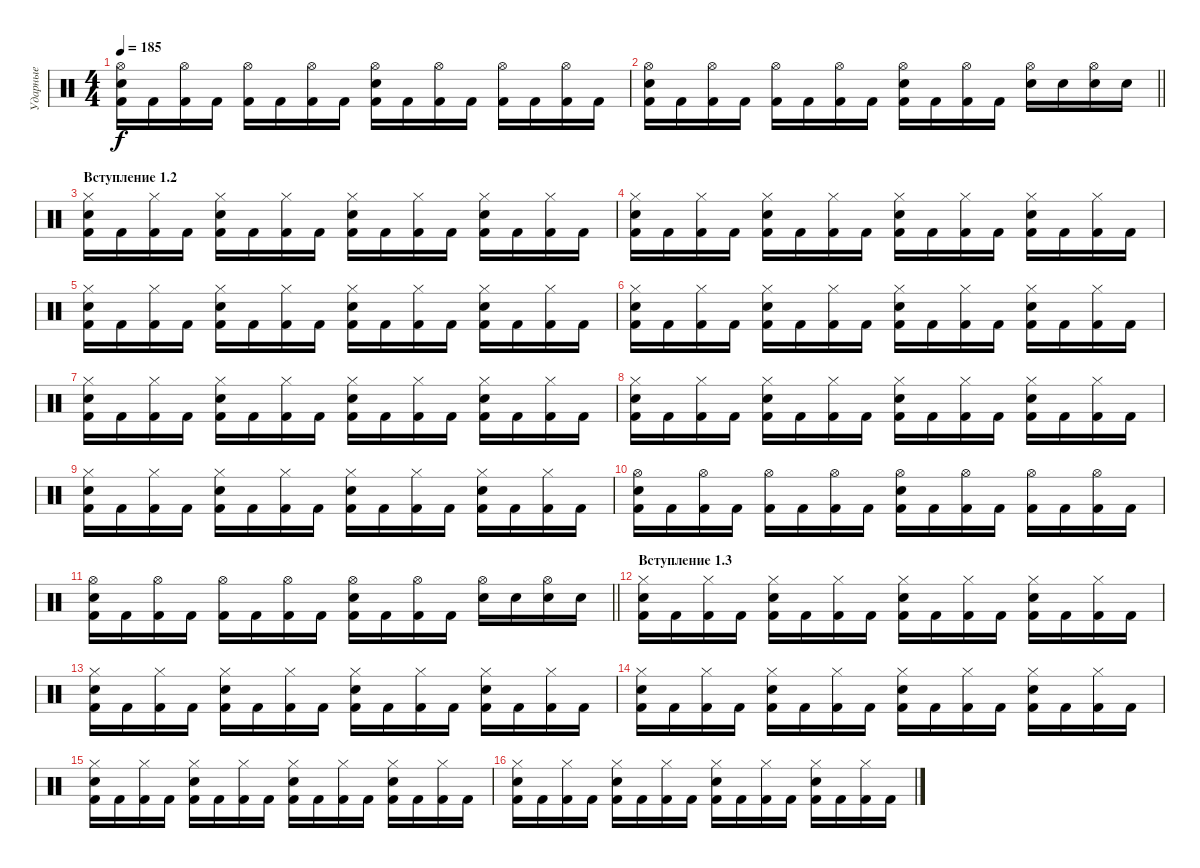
\track ("Ударные" "Ударные") {instrument percussion}
\staff {score}
\articulation defaults
\ts (4 4)
\tempo 185
\clef neutral
\ks c
("Snare (hit) 2" "Hi-Hat (open)" "Kick (hit) 2").16{dy f} "Kick (hit) 2".16 ("Hi-Hat (open)" "Kick (hit) 2").16 "Kick (hit) 2".16 ("Hi-Hat (open)" "Kick (hit) 2").16 "Kick (hit) 2".16 ("Hi-Hat (open)" "Kick (hit) 2").16 "Kick (hit) 2".16 ("Snare (hit) 2" "Hi-Hat (open)" "Kick (hit) 2").16 "Kick (hit) 2".16 ("Hi-Hat (open)" "Kick (hit) 2").16 "Kick (hit) 2".16 ("Hi-Hat (open)" "Kick (hit) 2").16 "Kick (hit) 2".16 ("Hi-Hat (open)" "Kick (hit) 2").16 "Kick (hit) 2".16 |
\barLineRight lightlight
("Snare (hit) 2" "Hi-Hat (open)" "Kick (hit) 2").16 "Kick (hit) 2".16 ("Hi-Hat (open)" "Kick (hit) 2").16 "Kick (hit) 2".16 ("Hi-Hat (open)" "Kick (hit) 2").16 "Kick (hit) 2".16 ("Hi-Hat (open)" "Kick (hit) 2").16 "Kick (hit) 2".16 ("Snare (hit) 2" "Hi-Hat (open)" "Kick (hit) 2").16 "Kick (hit) 2".16 ("Hi-Hat (open)" "Kick (hit) 2").16 "Kick (hit) 2".16 ("Hi-Hat (open)" "Electric Snare (hit)").16 "Electric Snare (hit)".16 ("Hi-Hat (open)" "Electric Snare (hit)").16 "Electric Snare (hit)".16 |
\section ("" "Вступление 1.2")
("Hi-Hat (closed)" "Snare (hit) 2" "Kick (hit) 2").16 "Kick (hit) 2".16 ("Hi-Hat (closed)" "Kick (hit) 2").16 "Kick (hit) 2".16 ("Hi-Hat (closed)" "Snare (hit) 2" "Kick (hit) 2").16 "Kick (hit) 2".16 ("Hi-Hat (closed)" "Kick (hit) 2").16 "Kick (hit) 2".16 ("Hi-Hat (closed)" "Snare (hit) 2" "Kick (hit) 2").16 "Kick (hit) 2".16 ("Hi-Hat (closed)" "Kick (hit) 2").16 "Kick (hit) 2".16 ("Hi-Hat (closed)" "Snare (hit) 2" "Kick (hit) 2").16 "Kick (hit) 2".16 ("Hi-Hat (closed)" "Kick (hit) 2").16 "Kick (hit) 2".16 |
("Hi-Hat (closed)" "Snare (hit) 2" "Kick (hit) 2").16 "Kick (hit) 2".16 ("Hi-Hat (closed)" "Kick (hit) 2").16 "Kick (hit) 2".16 ("Hi-Hat (closed)" "Snare (hit) 2" "Kick (hit) 2").16 "Kick (hit) 2".16 ("Hi-Hat (closed)" "Kick (hit) 2").16 "Kick (hit) 2".16 ("Hi-Hat (closed)" "Snare (hit) 2" "Kick (hit) 2").16 "Kick (hit) 2".16 ("Hi-Hat (closed)" "Kick (hit) 2").16 "Kick (hit) 2".16 ("Hi-Hat (closed)" "Snare (hit) 2" "Kick (hit) 2").16 "Kick (hit) 2".16 ("Hi-Hat (closed)" "Kick (hit) 2").16 "Kick (hit) 2".16 |
("Hi-Hat (closed)" "Snare (hit) 2" "Kick (hit) 2").16 "Kick (hit) 2".16 ("Hi-Hat (closed)" "Kick (hit) 2").16 "Kick (hit) 2".16 ("Hi-Hat (closed)" "Snare (hit) 2" "Kick (hit) 2").16 "Kick (hit) 2".16 ("Hi-Hat (closed)" "Kick (hit) 2").16 "Kick (hit) 2".16 ("Hi-Hat (closed)" "Snare (hit) 2" "Kick (hit) 2").16 "Kick (hit) 2".16 ("Hi-Hat (closed)" "Kick (hit) 2").16 "Kick (hit) 2".16 ("Hi-Hat (closed)" "Snare (hit) 2" "Kick (hit) 2").16 "Kick (hit) 2".16 ("Hi-Hat (closed)" "Kick (hit) 2").16 "Kick (hit) 2".16 |
("Hi-Hat (closed)" "Snare (hit) 2" "Kick (hit) 2").16 "Kick (hit) 2".16 ("Hi-Hat (closed)" "Kick (hit) 2").16 "Kick (hit) 2".16 ("Hi-Hat (closed)" "Snare (hit) 2" "Kick (hit) 2").16 "Kick (hit) 2".16 ("Hi-Hat (closed)" "Kick (hit) 2").16 "Kick (hit) 2".16 ("Hi-Hat (closed)" "Snare (hit) 2" "Kick (hit) 2").16 "Kick (hit) 2".16 ("Hi-Hat (closed)" "Kick (hit) 2").16 "Kick (hit) 2".16 ("Hi-Hat (closed)" "Snare (hit) 2" "Kick (hit) 2").16 "Kick (hit) 2".16 ("Hi-Hat (closed)" "Kick (hit) 2").16 "Kick (hit) 2".16 |
("Hi-Hat (closed)" "Snare (hit) 2" "Kick (hit) 2").16 "Kick (hit) 2".16 ("Hi-Hat (closed)" "Kick (hit) 2").16 "Kick (hit) 2".16 ("Hi-Hat (closed)" "Snare (hit) 2" "Kick (hit) 2").16 "Kick (hit) 2".16 ("Hi-Hat (closed)" "Kick (hit) 2").16 "Kick (hit) 2".16 ("Hi-Hat (closed)" "Snare (hit) 2" "Kick (hit) 2").16 "Kick (hit) 2".16 ("Hi-Hat (closed)" "Kick (hit) 2").16 "Kick (hit) 2".16 ("Hi-Hat (closed)" "Snare (hit) 2" "Kick (hit) 2").16 "Kick (hit) 2".16 ("Hi-Hat (closed)" "Kick (hit) 2").16 "Kick (hit) 2".16 |
("Hi-Hat (closed)" "Snare (hit) 2" "Kick (hit) 2").16 "Kick (hit) 2".16 ("Hi-Hat (closed)" "Kick (hit) 2").16 "Kick (hit) 2".16 ("Hi-Hat (closed)" "Snare (hit) 2" "Kick (hit) 2").16 "Kick (hit) 2".16 ("Hi-Hat (closed)" "Kick (hit) 2").16 "Kick (hit) 2".16 ("Hi-Hat (closed)" "Snare (hit) 2" "Kick (hit) 2").16 "Kick (hit) 2".16 ("Hi-Hat (closed)" "Kick (hit) 2").16 "Kick (hit) 2".16 ("Hi-Hat (closed)" "Snare (hit) 2" "Kick (hit) 2").16 "Kick (hit) 2".16 ("Hi-Hat (closed)" "Kick (hit) 2").16 "Kick (hit) 2".16 |
("Hi-Hat (closed)" "Snare (hit) 2" "Kick (hit) 2").16 "Kick (hit) 2".16 ("Hi-Hat (closed)" "Kick (hit) 2").16 "Kick (hit) 2".16 ("Hi-Hat (closed)" "Snare (hit) 2" "Kick (hit) 2").16 "Kick (hit) 2".16 ("Hi-Hat (closed)" "Kick (hit) 2").16 "Kick (hit) 2".16 ("Hi-Hat (closed)" "Snare (hit) 2" "Kick (hit) 2").16 "Kick (hit) 2".16 ("Hi-Hat (closed)" "Kick (hit) 2").16 "Kick (hit) 2".16 ("Hi-Hat (closed)" "Snare (hit) 2" "Kick (hit) 2").16 "Kick (hit) 2".16 ("Hi-Hat (closed)" "Kick (hit) 2").16 "Kick (hit) 2".16 |
("Snare (hit) 2" "Hi-Hat (open)" "Kick (hit) 2").16 "Kick (hit) 2".16 ("Hi-Hat (open)" "Kick (hit) 2").16 "Kick (hit) 2".16 ("Hi-Hat (open)" "Kick (hit) 2").16 "Kick (hit) 2".16 ("Hi-Hat (open)" "Kick (hit) 2").16 "Kick (hit) 2".16 ("Snare (hit) 2" "Hi-Hat (open)" "Kick (hit) 2").16 "Kick (hit) 2".16 ("Hi-Hat (open)" "Kick (hit) 2").16 "Kick (hit) 2".16 ("Hi-Hat (open)" "Kick (hit) 2").16 "Kick (hit) 2".16 ("Hi-Hat (open)" "Kick (hit) 2").16 "Kick (hit) 2".16 |
\barLineRight lightlight
("Snare (hit) 2" "Hi-Hat (open)" "Kick (hit) 2").16 "Kick (hit) 2".16 ("Hi-Hat (open)" "Kick (hit) 2").16 "Kick (hit) 2".16 ("Hi-Hat (open)" "Kick (hit) 2").16 "Kick (hit) 2".16 ("Hi-Hat (open)" "Kick (hit) 2").16 "Kick (hit) 2".16 ("Snare (hit) 2" "Hi-Hat (open)" "Kick (hit) 2").16 "Kick (hit) 2".16 ("Hi-Hat (open)" "Kick (hit) 2").16 "Kick (hit) 2".16 ("Hi-Hat (open)" "Electric Snare (hit)").16 "Electric Snare (hit)".16 ("Hi-Hat (open)" "Electric Snare (hit)").16 "Electric Snare (hit)".16 |
\section ("" "Вступление 1.3")
("Hi-Hat (closed)" "Snare (hit) 2" "Kick (hit) 2").16 "Kick (hit) 2".16 ("Hi-Hat (closed)" "Kick (hit) 2").16 "Kick (hit) 2".16 ("Hi-Hat (closed)" "Snare (hit) 2" "Kick (hit) 2").16 "Kick (hit) 2".16 ("Hi-Hat (closed)" "Kick (hit) 2").16 "Kick (hit) 2".16 ("Hi-Hat (closed)" "Snare (hit) 2" "Kick (hit) 2").16 "Kick (hit) 2".16 ("Hi-Hat (closed)" "Kick (hit) 2").16 "Kick (hit) 2".16 ("Hi-Hat (closed)" "Snare (hit) 2" "Kick (hit) 2").16 "Kick (hit) 2".16 ("Hi-Hat (closed)" "Kick (hit) 2").16 "Kick (hit) 2".16 |
("Hi-Hat (closed)" "Snare (hit) 2" "Kick (hit) 2").16 "Kick (hit) 2".16 ("Hi-Hat (closed)" "Kick (hit) 2").16 "Kick (hit) 2".16 ("Hi-Hat (closed)" "Snare (hit) 2" "Kick (hit) 2").16 "Kick (hit) 2".16 ("Hi-Hat (closed)" "Kick (hit) 2").16 "Kick (hit) 2".16 ("Hi-Hat (closed)" "Snare (hit) 2" "Kick (hit) 2").16 "Kick (hit) 2".16 ("Hi-Hat (closed)" "Kick (hit) 2").16 "Kick (hit) 2".16 ("Hi-Hat (closed)" "Snare (hit) 2" "Kick (hit) 2").16 "Kick (hit) 2".16 ("Hi-Hat (closed)" "Kick (hit) 2").16 "Kick (hit) 2".16 |
("Hi-Hat (closed)" "Snare (hit) 2" "Kick (hit) 2").16 "Kick (hit) 2".16 ("Hi-Hat (closed)" "Kick (hit) 2").16 "Kick (hit) 2".16 ("Hi-Hat (closed)" "Snare (hit) 2" "Kick (hit) 2").16 "Kick (hit) 2".16 ("Hi-Hat (closed)" "Kick (hit) 2").16 "Kick (hit) 2".16 ("Hi-Hat (closed)" "Snare (hit) 2" "Kick (hit) 2").16 "Kick (hit) 2".16 ("Hi-Hat (closed)" "Kick (hit) 2").16 "Kick (hit) 2".16 ("Hi-Hat (closed)" "Snare (hit) 2" "Kick (hit) 2").16 "Kick (hit) 2".16 ("Hi-Hat (closed)" "Kick (hit) 2").16 "Kick (hit) 2".16 |
("Hi-Hat (closed)" "Snare (hit) 2" "Kick (hit) 2").16 "Kick (hit) 2".16 ("Hi-Hat (closed)" "Kick (hit) 2").16 "Kick (hit) 2".16 ("Hi-Hat (closed)" "Snare (hit) 2" "Kick (hit) 2").16 "Kick (hit) 2".16 ("Hi-Hat (closed)" "Kick (hit) 2").16 "Kick (hit) 2".16 ("Hi-Hat (closed)" "Snare (hit) 2" "Kick (hit) 2").16 "Kick (hit) 2".16 ("Hi-Hat (closed)" "Kick (hit) 2").16 "Kick (hit) 2".16 ("Hi-Hat (closed)" "Snare (hit) 2" "Kick (hit) 2").16 "Kick (hit) 2".16 ("Hi-Hat (closed)" "Kick (hit) 2").16 "Kick (hit) 2".16 |
("Hi-Hat (closed)" "Snare (hit) 2" "Kick (hit) 2").16 "Kick (hit) 2".16 ("Hi-Hat (closed)" "Kick (hit) 2").16 "Kick (hit) 2".16 ("Hi-Hat (closed)" "Snare (hit) 2" "Kick (hit) 2").16 "Kick (hit) 2".16 ("Hi-Hat (closed)" "Kick (hit) 2").16 "Kick (hit) 2".16 ("Hi-Hat (closed)" "Snare (hit) 2" "Kick (hit) 2").16 "Kick (hit) 2".16 ("Hi-Hat (closed)" "Kick (hit) 2").16 "Kick (hit) 2".16 ("Hi-Hat (closed)" "Snare (hit) 2" "Kick (hit) 2").16 "Kick (hit) 2".16 ("Hi-Hat (closed)" "Kick (hit) 2").16 "Kick (hit) 2".16
